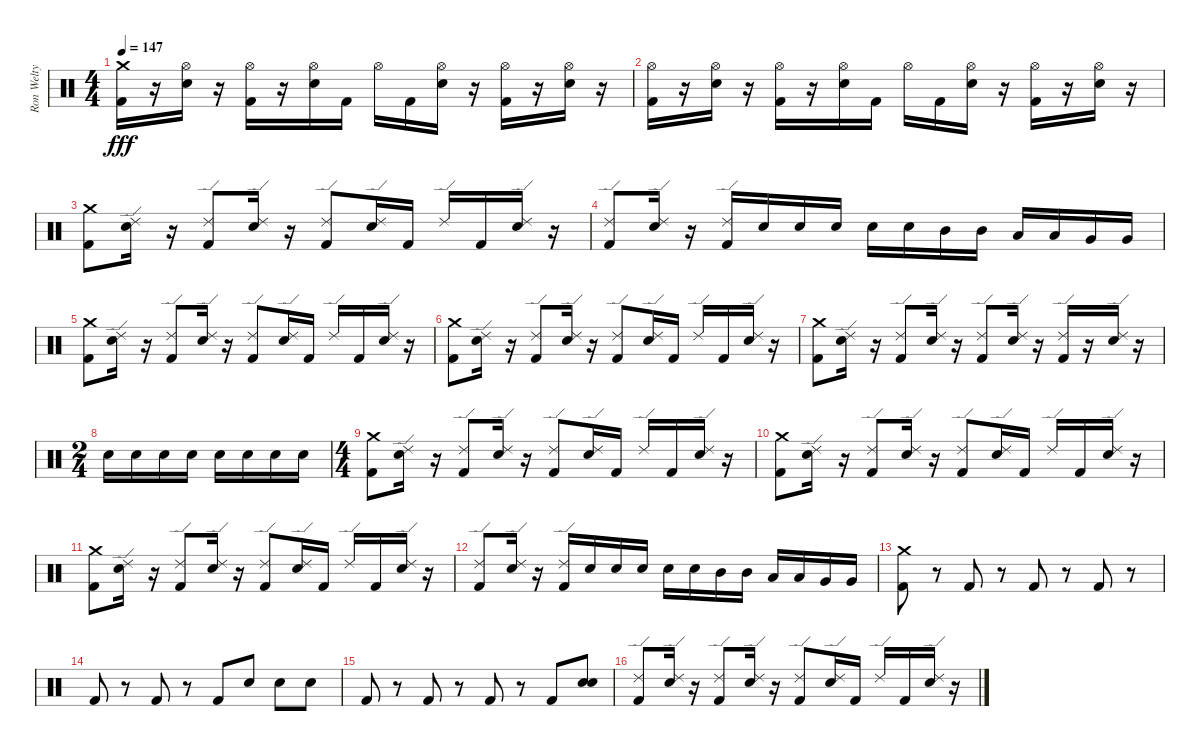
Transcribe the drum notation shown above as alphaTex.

\track ("Ron Welty" "Ron Welty") {instrument percussion}
\staff {score}
\articulation defaults
\ts (4 4)
\tempo 147
\clef neutral
\ks c
("Kick (hit) 2" "Crash medium (hit)").16{dy fff} r.16 ("Hi-Hat (open)" "Snare (hit) 2").16 r.16 ("Hi-Hat (open)" "Kick (hit) 2").16 r.16 ("Hi-Hat (open)" "Snare (hit) 2").16 "Kick (hit) 2".16 "Hi-Hat (open)".16 "Kick (hit) 2".16 ("Hi-Hat (open)" "Snare (hit) 2").16 r.16 ("Hi-Hat (open)" "Kick (hit) 2").16 r.16 ("Hi-Hat (open)" "Snare (hit) 2").16 r.16 |
("Hi-Hat (open)" "Kick (hit) 2").16 r.16 ("Hi-Hat (open)" "Snare (hit) 2").16 r.16 ("Hi-Hat (open)" "Kick (hit) 2").16 r.16 ("Hi-Hat (open)" "Snare (hit) 2").16 "Kick (hit) 2".16 "Hi-Hat (open)".16 "Kick (hit) 2".16 ("Hi-Hat (open)" "Snare (hit) 2").16 r.16 ("Hi-Hat (open)" "Kick (hit) 2").16 r.16 ("Hi-Hat (open)" "Snare (hit) 2").16 r.16 |
("Kick (hit) 2" "Crash medium (hit)").8 ("Snare (hit) 2" "Ride (edge) 2").16 r.16 ("Kick (hit) 2" "Ride (edge) 2").8 ("Snare (hit) 2" "Ride (edge) 2").16 r.16 ("Kick (hit) 2" "Ride (edge) 2").8 ("Snare (hit) 2" "Ride (edge) 2").16 "Kick (hit) 2".16 "Ride (edge) 2".16 "Kick (hit) 2".16 ("Snare (hit) 2" "Ride (edge) 2").16 r.16 |
("Kick (hit) 2" "Ride (edge) 2").8 ("Snare (hit) 2" "Ride (edge) 2").16 r.16 ("Kick (hit) 2" "Ride (edge) 2").16 "Snare (hit) 2".16 "Snare (hit) 2".16 "Snare (hit) 2".16 "Snare (hit) 2".16 "Snare (hit) 2".16 "Mid Tom (hit)".16 "Mid Tom (hit)".16 "Low Tom (hit)".16 "Low Tom (hit)".16 "Very Low Tom (hit)".16 "Very Low Tom (hit)".16 |
("Kick (hit) 2" "Crash medium (hit)").8 ("Snare (hit) 2" "Ride (edge) 2").16 r.16 ("Kick (hit) 2" "Ride (edge) 2").8 ("Snare (hit) 2" "Ride (edge) 2").16 r.16 ("Kick (hit) 2" "Ride (edge) 2").8 ("Snare (hit) 2" "Ride (edge) 2").16 "Kick (hit) 2".16 "Ride (edge) 2".16 "Kick (hit) 2".16 ("Snare (hit) 2" "Ride (edge) 2").16 r.16 |
("Kick (hit) 2" "Crash medium (hit)").8 ("Snare (hit) 2" "Ride (edge) 2").16 r.16 ("Kick (hit) 2" "Ride (edge) 2").8 ("Snare (hit) 2" "Ride (edge) 2").16 r.16 ("Kick (hit) 2" "Ride (edge) 2").8 ("Snare (hit) 2" "Ride (edge) 2").16 "Kick (hit) 2".16 "Ride (edge) 2".16 "Kick (hit) 2".16 ("Snare (hit) 2" "Ride (edge) 2").16 r.16 |
("Kick (hit) 2" "Crash medium (hit)").8 ("Snare (hit) 2" "Ride (edge) 2").16 r.16 ("Kick (hit) 2" "Ride (edge) 2").8 ("Snare (hit) 2" "Ride (edge) 2").16 r.16 ("Kick (hit) 2" "Ride (edge) 2").8 ("Snare (hit) 2" "Ride (edge) 2").16 r.16 ("Ride (edge) 2" "Kick (hit) 2").16 r.16 ("Snare (hit) 2" "Ride (edge) 2").16 r.16 |
\ts (2 4)
"Snare (hit) 2".16 "Snare (hit) 2".16 "Snare (hit) 2".16 "Snare (hit) 2".16 "Snare (hit) 2".16 "Snare (hit) 2".16 "Snare (hit) 2".16 "Snare (hit) 2".16 |
\ts (4 4)
("Kick (hit) 2" "Crash medium (hit)").8 ("Snare (hit) 2" "Ride (edge) 2").16 r.16 ("Kick (hit) 2" "Ride (edge) 2").8 ("Snare (hit) 2" "Ride (edge) 2").16 r.16 ("Kick (hit) 2" "Ride (edge) 2").8 ("Snare (hit) 2" "Ride (edge) 2").16 "Kick (hit) 2".16 "Ride (edge) 2".16 "Kick (hit) 2".16 ("Snare (hit) 2" "Ride (edge) 2").16 r.16 |
("Kick (hit) 2" "Crash medium (hit)").8 ("Snare (hit) 2" "Ride (edge) 2").16 r.16 ("Kick (hit) 2" "Ride (edge) 2").8 ("Snare (hit) 2" "Ride (edge) 2").16 r.16 ("Kick (hit) 2" "Ride (edge) 2").8 ("Snare (hit) 2" "Ride (edge) 2").16 "Kick (hit) 2".16 "Ride (edge) 2".16 "Kick (hit) 2".16 ("Snare (hit) 2" "Ride (edge) 2").16 r.16 |
("Kick (hit) 2" "Crash medium (hit)").8 ("Snare (hit) 2" "Ride (edge) 2").16 r.16 ("Kick (hit) 2" "Ride (edge) 2").8 ("Snare (hit) 2" "Ride (edge) 2").16 r.16 ("Kick (hit) 2" "Ride (edge) 2").8 ("Snare (hit) 2" "Ride (edge) 2").16 "Kick (hit) 2".16 "Ride (edge) 2".16 "Kick (hit) 2".16 ("Snare (hit) 2" "Ride (edge) 2").16 r.16 |
("Kick (hit) 2" "Ride (edge) 2").8 ("Snare (hit) 2" "Ride (edge) 2").16 r.16 ("Kick (hit) 2" "Ride (edge) 2").16 "Snare (hit) 2".16 "Snare (hit) 2".16 "Snare (hit) 2".16 "Snare (hit) 2".16 "Snare (hit) 2".16 "Mid Tom (hit)".16 "Mid Tom (hit)".16 "Low Tom (hit)".16 "Low Tom (hit)".16 "Very Low Tom (hit)".16 "Very Low Tom (hit)".16 |
("Kick (hit) 2" "Crash medium (hit)").8 r.8 "Kick (hit) 2".8 r.8 "Kick (hit) 2".8 r.8 "Kick (hit) 2".8 r.8 |
"Kick (hit) 2".8 r.8 "Kick (hit) 2".8 r.8 "Kick (hit) 2".8 "Snare (hit) 2".8 "Snare (hit) 2".8 "Snare (hit) 2".8 |
"Kick (hit) 2".8 r.8 "Kick (hit) 2".8 r.8 "Kick (hit) 2".8 r.8 "Kick (hit) 2".8 ("Snare (hit) 2" "Snare (hit) 2").8 |
("Kick (hit) 2" "Ride (edge) 2").8 ("Snare (hit) 2" "Ride (edge) 2").16 r.16 ("Kick (hit) 2" "Ride (edge) 2").8 ("Snare (hit) 2" "Ride (edge) 2").16 r.16 ("Kick (hit) 2" "Ride (edge) 2").8 ("Snare (hit) 2" "Ride (edge) 2").16 "Kick (hit) 2".16 "Ride (edge) 2".16 "Kick (hit) 2".16 ("Snare (hit) 2" "Ride (edge) 2").16 r.16
